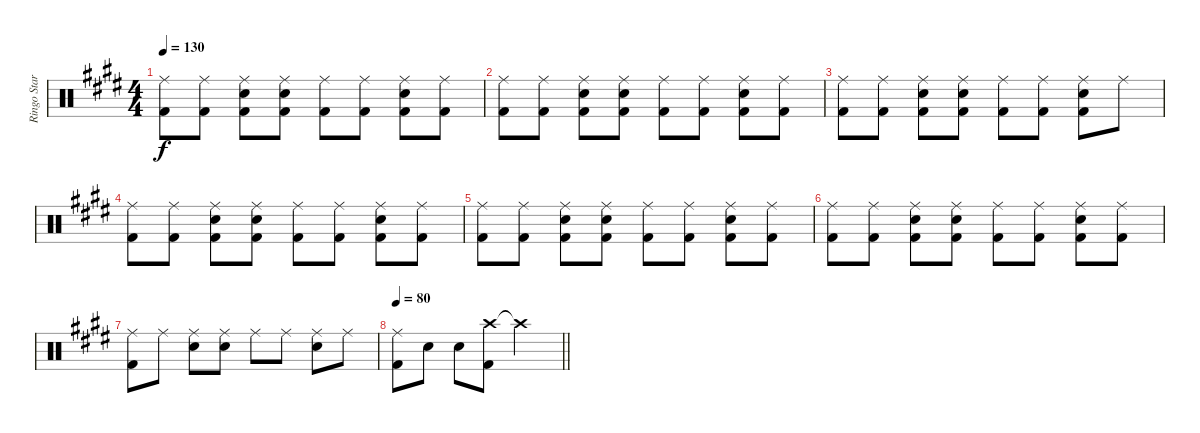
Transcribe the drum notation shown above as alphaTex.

\track ("Ringo Starr Drums" "Ringo Star") {instrument percussion}
\staff {score}
\articulation defaults
\ts (4 4)
\tempo 130
\clef neutral
\ks e
("Ride (middle)" "Kick (hit) 2").8{dy f} ("Ride (middle)" "Kick (hit) 2").8 ("Ride (middle)" "Snare (hit) 2" "Kick (hit) 2").8 ("Ride (middle)" "Snare (hit) 2" "Kick (hit) 2").8 ("Ride (middle)" "Kick (hit) 2").8 ("Ride (middle)" "Kick (hit) 2").8 ("Ride (middle)" "Snare (hit) 2" "Kick (hit) 2").8 ("Ride (middle)" "Kick (hit) 2").8 |
("Ride (middle)" "Kick (hit) 2").8 ("Ride (middle)" "Kick (hit) 2").8 ("Ride (middle)" "Snare (hit) 2" "Kick (hit) 2").8 ("Ride (middle)" "Snare (hit) 2" "Kick (hit) 2").8 ("Ride (middle)" "Kick (hit) 2").8 ("Ride (middle)" "Kick (hit) 2").8 ("Ride (middle)" "Snare (hit) 2" "Kick (hit) 2").8 ("Ride (middle)" "Kick (hit) 2").8 |
("Ride (middle)" "Kick (hit) 2").8 ("Ride (middle)" "Kick (hit) 2").8 ("Ride (middle)" "Snare (hit) 2" "Kick (hit) 2").8 ("Ride (middle)" "Snare (hit) 2" "Kick (hit) 2").8 ("Ride (middle)" "Kick (hit) 2").8 ("Ride (middle)" "Kick (hit) 2").8 ("Ride (middle)" "Snare (hit) 2" "Kick (hit) 2").8 "Ride (middle)".8 |
("Ride (middle)" "Kick (hit) 2").8 ("Ride (middle)" "Kick (hit) 2").8 ("Ride (middle)" "Snare (hit) 2" "Kick (hit) 2").8 ("Ride (middle)" "Snare (hit) 2" "Kick (hit) 2").8 ("Ride (middle)" "Kick (hit) 2").8 ("Ride (middle)" "Kick (hit) 2").8 ("Ride (middle)" "Snare (hit) 2" "Kick (hit) 2").8 ("Ride (middle)" "Kick (hit) 2").8 |
("Ride (middle)" "Kick (hit) 2").8 ("Ride (middle)" "Kick (hit) 2").8 ("Ride (middle)" "Snare (hit) 2" "Kick (hit) 2").8 ("Ride (middle)" "Snare (hit) 2" "Kick (hit) 2").8 ("Ride (middle)" "Kick (hit) 2").8 ("Ride (middle)" "Kick (hit) 2").8 ("Ride (middle)" "Snare (hit) 2" "Kick (hit) 2").8 ("Ride (middle)" "Kick (hit) 2").8 |
("Ride (middle)" "Kick (hit) 2").8 ("Ride (middle)" "Kick (hit) 2").8 ("Ride (middle)" "Snare (hit) 2" "Kick (hit) 2").8 ("Ride (middle)" "Snare (hit) 2" "Kick (hit) 2").8 ("Ride (middle)" "Kick (hit) 2").8 ("Ride (middle)" "Kick (hit) 2").8 ("Ride (middle)" "Snare (hit) 2" "Kick (hit) 2").8 ("Ride (middle)" "Kick (hit) 2").8 |
("Ride (middle)" "Kick (hit) 2").8 "Ride (middle)".8 ("Ride (middle)" "Snare (hit) 2").8 ("Ride (middle)" "Snare (hit) 2").8 "Ride (middle)".8 "Ride (middle)".8 ("Ride (middle)" "Snare (hit) 2").8 "Ride (middle)".8 |
\tempo 80
\barLineRight lightlight
("Ride (middle)" "Kick (hit) 2").8 "Snare (hit) 2".8 "Electric Snare (hit)".8 ("Crash high (hit)" "Kick (hit) 2").8 "Crash high (hit)"{t}.2
